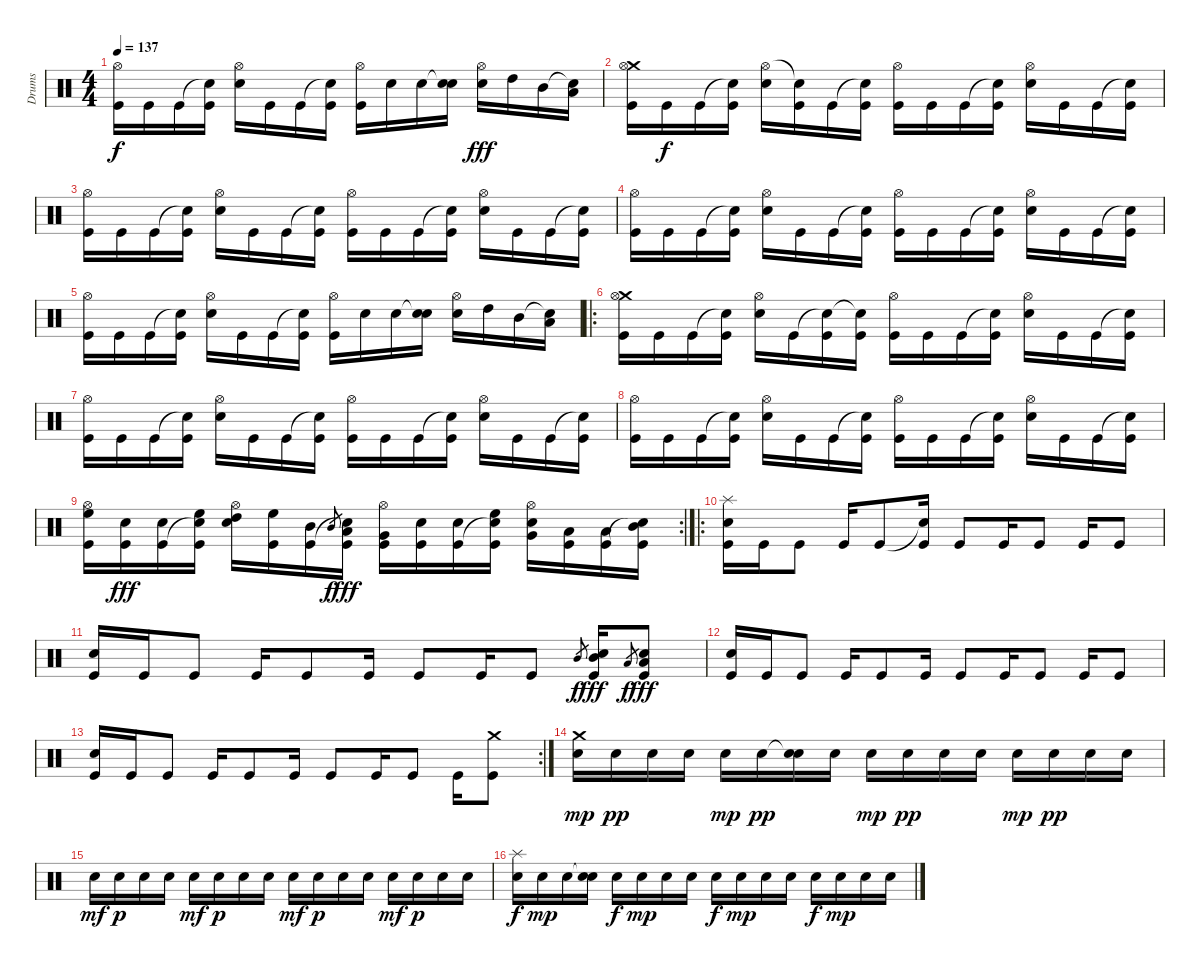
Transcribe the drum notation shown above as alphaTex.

\track ("Drums" "Drums") {instrument percussion}
\staff {score}
\articulation defaults
\ts (4 4)
\tempo 137
\clef neutral
\ks c
("Hi-Hat (open)" "Kick (hit)").16{dy f} "Kick (hit)".16 "Kick (hit)".16 ("Snare (hit)"{t} "Kick (hit)").16 ("Hi-Hat (open)" "Electric Snare (hit)").16 "Kick (hit)".16 "Kick (hit)".16 ("Snare (hit)"{t} "Kick (hit)").16 ("Hi-Hat (open)" "Kick (hit)").16 "Electric Snare (hit)".16 "Electric Snare (hit)".16 ("Snare (hit)"{t} "Electric Snare (hit)").16 ("Hi-Hat (open)" "Electric Snare (hit)").16{dy fff} "High Tom (hit)".16 "Mid Tom (hit)".16 ("Snare (hit)"{t} "Low Tom (hit)").16 |
("Crash medium (hit)" "Hi-Hat (open)" "Kick (hit)").16 "Kick (hit)".16{dy f} "Kick (hit)".16 ("Snare (hit)"{t} "Kick (hit)").16 ("Hi-Hat (open)" "Electric Snare (hit)").16 ("Snare (hit)"{t} "Kick (hit)").16 "Kick (hit)".16 ("Snare (hit)"{t} "Kick (hit)").16 ("Hi-Hat (open)" "Kick (hit)").16 "Kick (hit)".16 "Kick (hit)".16 ("Snare (hit)"{t} "Kick (hit)").16 ("Hi-Hat (open)" "Electric Snare (hit)").16 "Kick (hit)".16 "Kick (hit)".16 ("Snare (hit)"{t} "Kick (hit)").16 |
("Hi-Hat (open)" "Kick (hit)").16 "Kick (hit)".16 "Kick (hit)".16 ("Snare (hit)"{t} "Kick (hit)").16 ("Hi-Hat (open)" "Electric Snare (hit)").16 "Kick (hit)".16 "Kick (hit)".16 ("Snare (hit)"{t} "Kick (hit)").16 ("Hi-Hat (open)" "Kick (hit)").16 "Kick (hit)".16 "Kick (hit)".16 ("Snare (hit)"{t} "Kick (hit)").16 ("Hi-Hat (open)" "Electric Snare (hit)").16 "Kick (hit)".16 "Kick (hit)".16 ("Snare (hit)"{t} "Kick (hit)").16 |
("Hi-Hat (open)" "Kick (hit)").16 "Kick (hit)".16 "Kick (hit)".16 ("Snare (hit)"{t} "Kick (hit)").16 ("Hi-Hat (open)" "Electric Snare (hit)").16 "Kick (hit)".16 "Kick (hit)".16 ("Snare (hit)"{t} "Kick (hit)").16 ("Hi-Hat (open)" "Kick (hit)").16 "Kick (hit)".16 "Kick (hit)".16 ("Snare (hit)"{t} "Kick (hit)").16 ("Hi-Hat (open)" "Electric Snare (hit)").16 "Kick (hit)".16 "Kick (hit)".16 ("Snare (hit)"{t} "Kick (hit)").16 |
("Hi-Hat (open)" "Kick (hit)").16 "Kick (hit)".16 "Kick (hit)".16 ("Snare (hit)"{t} "Kick (hit)").16 ("Hi-Hat (open)" "Electric Snare (hit)").16 "Kick (hit)".16 "Kick (hit)".16 ("Snare (hit)"{t} "Kick (hit)").16 ("Hi-Hat (open)" "Kick (hit)").16 "Electric Snare (hit)".16 "Electric Snare (hit)".16 ("Snare (hit)"{t} "Electric Snare (hit)").16 ("Hi-Hat (open)" "Electric Snare (hit)").16 "High Tom (hit)".16 "Mid Tom (hit)".16 ("Snare (hit)"{t} "Low Tom (hit)").16 |
\ro
("Crash medium (hit)" "Hi-Hat (open)" "Kick (hit)").16 "Kick (hit)".16 "Kick (hit)".16 ("Snare (hit)"{t} "Kick (hit)").16 ("Hi-Hat (open)" "Electric Snare (hit)").16 "Kick (hit)".16 ("Snare (hit)"{t} "Kick (hit)").16 ("Snare (hit)"{t} "Kick (hit)").16 ("Hi-Hat (open)" "Kick (hit)").16 "Kick (hit)".16 "Kick (hit)".16 ("Snare (hit)"{t} "Kick (hit)").16 ("Hi-Hat (open)" "Electric Snare (hit)").16 "Kick (hit)".16 "Kick (hit)".16 ("Snare (hit)"{t} "Kick (hit)").16 |
("Hi-Hat (open)" "Kick (hit)").16 "Kick (hit)".16 "Kick (hit)".16 ("Snare (hit)"{t} "Kick (hit)").16 ("Hi-Hat (open)" "Electric Snare (hit)").16 "Kick (hit)".16 "Kick (hit)".16 ("Snare (hit)"{t} "Kick (hit)").16 ("Hi-Hat (open)" "Kick (hit)").16 "Kick (hit)".16 "Kick (hit)".16 ("Snare (hit)"{t} "Kick (hit)").16 ("Hi-Hat (open)" "Electric Snare (hit)").16 "Kick (hit)".16 "Kick (hit)".16 ("Snare (hit)"{t} "Kick (hit)").16 |
("Hi-Hat (open)" "Kick (hit)").16 "Kick (hit)".16 "Kick (hit)".16 ("Snare (hit)"{t} "Kick (hit)").16 ("Hi-Hat (open)" "Electric Snare (hit)").16 "Kick (hit)".16 "Kick (hit)".16 ("Snare (hit)"{t} "Kick (hit)").16 ("Hi-Hat (open)" "Kick (hit)").16 "Kick (hit)".16 "Kick (hit)".16 ("Snare (hit)"{t} "Kick (hit)").16 ("Hi-Hat (open)" "Electric Snare (hit)").16 "Kick (hit)".16 "Kick (hit)".16 ("Snare (hit)"{t} "Kick (hit)").16 |
\rc 2
("High Floor Tom (hit)" "Hi-Hat (open)" "Kick (hit)").16 ("Electric Snare (hit)" "Kick (hit)").16{dy fff} ("Electric Snare (hit)" "Kick (hit)").16 ("High Floor Tom (hit)" "Snare (hit)"{t} "Kick (hit)").16 ("High Tom (hit)" "Hi-Hat (open)" "Electric Snare (hit)").16 ("High Floor Tom (hit)" "Kick (hit)").16 ("Mid Tom (hit)" "Kick (hit)").16 "Mid Tom (hit)".8{gr dy f} ("Low Tom (hit)" "Snare (hit)"{t} "Kick (hit)").16{dy fff} ("Very Low Tom (hit)" "Hi-Hat (open)" "Kick (hit)").16 ("Electric Snare (hit)" "Kick (hit)").16 ("Electric Snare (hit)" "Kick (hit)").16 ("High Floor Tom (hit)" "Snare (hit)"{t} "Kick (hit)").16 ("Very Low Tom (hit)" "Hi-Hat (open)" "Electric Snare (hit)").16 ("Low Floor Tom (hit)" "Kick (hit)").16 ("Low Tom (hit)" "Kick (hit)").16 ("Mid Tom (hit)" "Snare (hit)"{t} "Kick (hit)").16 |
\ro
("Splash (hit)" "Snare (hit) 2" "Kick (hit)").16{volume 16} "Kick (hit)".16 "Kick (hit)".8 "Kick (hit)".16 "Kick (hit)".8 ("Snare (hit)"{t} "Kick (hit)").16 "Kick (hit)".8 "Kick (hit)".16 "Kick (hit)".8 "Kick (hit)".16 "Kick (hit)".8 |
("Snare (hit) 2" "Kick (hit)").16{volume 16} "Kick (hit)".16 "Kick (hit)".8 "Kick (hit)".16 "Kick (hit)".8 "Kick (hit)".16 "Kick (hit)".8 "Kick (hit)".16 "Kick (hit)".8 "Mid Tom (hit)".8{gr dy f} ("Mid Tom (hit)" "Snare (hit) 2" "Kick (hit)").16{dy fff} "Low Tom (hit)".8{gr dy f} ("Low Tom (hit)" "Snare (hit) 2" "Kick (hit)").8{dy fff} |
("Snare (hit) 2" "Kick (hit)").16{volume 16} "Kick (hit)".16 "Kick (hit)".8 "Kick (hit)".16 "Kick (hit)".8 "Kick (hit)".16 "Kick (hit)".8 "Kick (hit)".16 "Kick (hit)".8 "Kick (hit)".16 "Kick (hit)".8 |
\rc 2
("Snare (hit) 2" "Kick (hit)").16{volume 16} "Kick (hit)".16 "Kick (hit)".8 "Kick (hit)".16 "Kick (hit)".8 "Kick (hit)".16 "Kick (hit)".8 "Kick (hit)".16 "Kick (hit)".8 "Kick (hit)".16 ("Crash medium (hit)" "Kick (hit)").8 |
("Crash medium (hit)" "Electric Snare (hit)").16{dy mp} "Electric Snare (hit)".16{dy pp} "Electric Snare (hit)".16 "Electric Snare (hit)".16 "Electric Snare (hit)".16{dy mp} "Electric Snare (hit)".16{dy pp} ("Snare (hit)"{t} "Electric Snare (hit)").16 "Electric Snare (hit)".16 "Electric Snare (hit)".16{dy mp} "Electric Snare (hit)".16{dy pp} "Electric Snare (hit)".16 "Electric Snare (hit)".16 "Electric Snare (hit)".16{dy mp} "Electric Snare (hit)".16{dy pp} "Electric Snare (hit)".16 "Electric Snare (hit)".16 |
"Electric Snare (hit)".16{dy mf} "Electric Snare (hit)".16{dy p} "Electric Snare (hit)".16 "Electric Snare (hit)".16 "Electric Snare (hit)".16{dy mf} "Electric Snare (hit)".16{dy p} "Electric Snare (hit)".16 "Electric Snare (hit)".16 "Electric Snare (hit)".16{dy mf} "Electric Snare (hit)".16{dy p} "Electric Snare (hit)".16 "Electric Snare (hit)".16 "Electric Snare (hit)".16{dy mf} "Electric Snare (hit)".16{dy p} "Electric Snare (hit)".16 "Electric Snare (hit)".16 |
("Splash (hit)" "Electric Snare (hit)").16{dy f} "Electric Snare (hit)".16{dy mp} "Electric Snare (hit)".16 ("Snare (hit)"{t} "Electric Snare (hit)").16 "Electric Snare (hit)".16{dy f} "Electric Snare (hit)".16{dy mp} "Electric Snare (hit)".16 "Electric Snare (hit)".16 "Electric Snare (hit)".16{dy f} "Electric Snare (hit)".16{dy mp} "Electric Snare (hit)".16 "Electric Snare (hit)".16 "Electric Snare (hit)".16{dy f} "Electric Snare (hit)".16{dy mp} "Electric Snare (hit)".16 "Electric Snare (hit)".16
